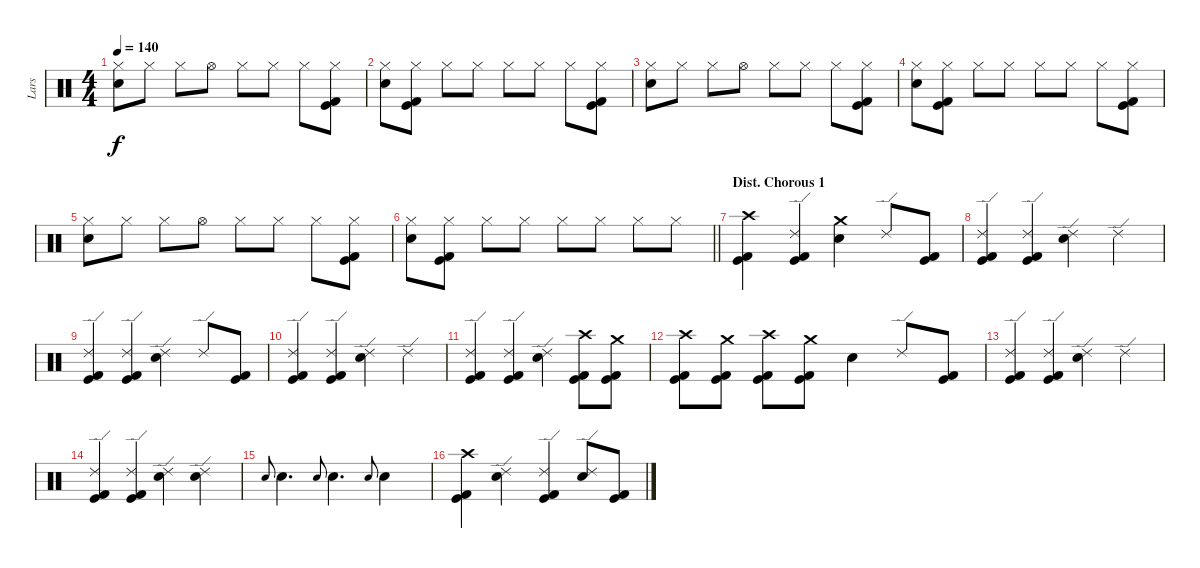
\track ("Lars" "Lars") {instrument percussion}
\staff {score}
\articulation defaults
\ts (4 4)
\tempo 140
\clef neutral
\ks c
("Hi-Hat (closed)" "Electric Snare (hit)").8{dy f} "Hi-Hat (closed)".8 "Hi-Hat (closed)".8 "Hi-Hat (open)".8 "Hi-Hat (closed)".8 "Hi-Hat (closed)".8 "Hi-Hat (closed)".8 ("Hi-Hat (closed)" "Kick (hit)" "Kick (hit) 2").8 |
("Hi-Hat (closed)" "Electric Snare (hit)").8 ("Hi-Hat (closed)" "Kick (hit)" "Kick (hit) 2").8 "Hi-Hat (closed)".8 "Hi-Hat (closed)".8 "Hi-Hat (closed)".8 "Hi-Hat (closed)".8 "Hi-Hat (closed)".8 ("Hi-Hat (closed)" "Kick (hit)" "Kick (hit) 2").8 |
("Hi-Hat (closed)" "Electric Snare (hit)").8 "Hi-Hat (closed)".8 "Hi-Hat (closed)".8 "Hi-Hat (open)".8 "Hi-Hat (closed)".8 "Hi-Hat (closed)".8 "Hi-Hat (closed)".8 ("Hi-Hat (closed)" "Kick (hit)" "Kick (hit) 2").8 |
("Hi-Hat (closed)" "Electric Snare (hit)").8 ("Hi-Hat (closed)" "Kick (hit)" "Kick (hit) 2").8 "Hi-Hat (closed)".8 "Hi-Hat (closed)".8 "Hi-Hat (closed)".8 "Hi-Hat (closed)".8 "Hi-Hat (closed)".8 ("Hi-Hat (closed)" "Kick (hit)" "Kick (hit) 2").8 |
("Hi-Hat (closed)" "Electric Snare (hit)").8 "Hi-Hat (closed)".8 "Hi-Hat (closed)".8 "Hi-Hat (open)".8 "Hi-Hat (closed)".8 "Hi-Hat (closed)".8 "Hi-Hat (closed)".8 ("Hi-Hat (closed)" "Kick (hit)" "Kick (hit) 2").8 |
\barLineRight lightlight
("Hi-Hat (closed)" "Electric Snare (hit)").8 ("Hi-Hat (closed)" "Kick (hit)" "Kick (hit) 2").8 "Hi-Hat (closed)".8 "Hi-Hat (closed)".8 "Hi-Hat (closed)".8 "Hi-Hat (closed)".8 "Hi-Hat (closed)".8 "Hi-Hat (closed)".8 |
\section ("" "Dist. Chorous 1")
("Crash high (hit)" "Kick (hit)" "Kick (hit) 2").4 ("Ride (edge) 2" "Kick (hit)" "Kick (hit) 2").4 ("Crash medium (hit)" "Electric Snare (hit)").4 "Ride (edge) 2".8 ("Kick (hit)" "Kick (hit) 2").8 |
("Ride (edge) 2" "Kick (hit)" "Kick (hit) 2").4 ("Ride (edge) 2" "Kick (hit)" "Kick (hit) 2").4 ("Ride (edge) 2" "Electric Snare (hit)").4 "Ride (edge) 2".4 |
("Ride (edge) 2" "Kick (hit)" "Kick (hit) 2").4 ("Ride (edge) 2" "Kick (hit)" "Kick (hit) 2").4 ("Ride (edge) 2" "Electric Snare (hit)").4 "Ride (edge) 2".8 ("Kick (hit)" "Kick (hit) 2").8 |
("Ride (edge) 2" "Kick (hit)" "Kick (hit) 2").4 ("Ride (edge) 2" "Kick (hit)" "Kick (hit) 2").4 ("Ride (edge) 2" "Electric Snare (hit)").4 "Ride (edge) 2".4 |
("Ride (edge) 2" "Kick (hit)" "Kick (hit) 2").4 ("Ride (edge) 2" "Kick (hit)" "Kick (hit) 2").4 ("Ride (edge) 2" "Electric Snare (hit)").4 ("Crash high (hit)" "Kick (hit)" "Kick (hit) 2").8 ("Crash medium (hit)" "Kick (hit)" "Kick (hit) 2").8 |
("Crash high (hit)" "Kick (hit)" "Kick (hit) 2").8 ("Crash medium (hit)" "Kick (hit)" "Kick (hit) 2").8 ("Crash high (hit)" "Kick (hit)" "Kick (hit) 2").8 ("Crash medium (hit)" "Kick (hit)" "Kick (hit) 2").8 "Electric Snare (hit)".4 "Ride (edge) 2".8 ("Kick (hit)" "Kick (hit) 2").8 |
("Ride (edge) 2" "Kick (hit)" "Kick (hit) 2").4 ("Ride (edge) 2" "Kick (hit)" "Kick (hit) 2").4 ("Ride (edge) 2" "Electric Snare (hit)").4 "Ride (edge) 2".4 |
("Ride (edge) 2" "Kick (hit)" "Kick (hit) 2").4 ("Ride (edge) 2" "Kick (hit)" "Kick (hit) 2").4 ("Ride (edge) 2" "Electric Snare (hit)").4 ("Ride (edge) 2" "Electric Snare (hit)").4 |
"Electric Snare (hit)".8{gr onbeat} "Electric Snare (hit)".4{d} "Electric Snare (hit)".8{gr onbeat} "Electric Snare (hit)".4{d} "Electric Snare (hit)".8{gr onbeat} "Electric Snare (hit)".4 |
("Crash high (hit)" "Kick (hit)" "Kick (hit) 2").4 ("Ride (edge) 2" "Electric Snare (hit)").4 ("Ride (edge) 2" "Kick (hit)" "Kick (hit) 2").4 ("Ride (edge) 2" "Electric Snare (hit)").8 ("Kick (hit)" "Kick (hit) 2").8
